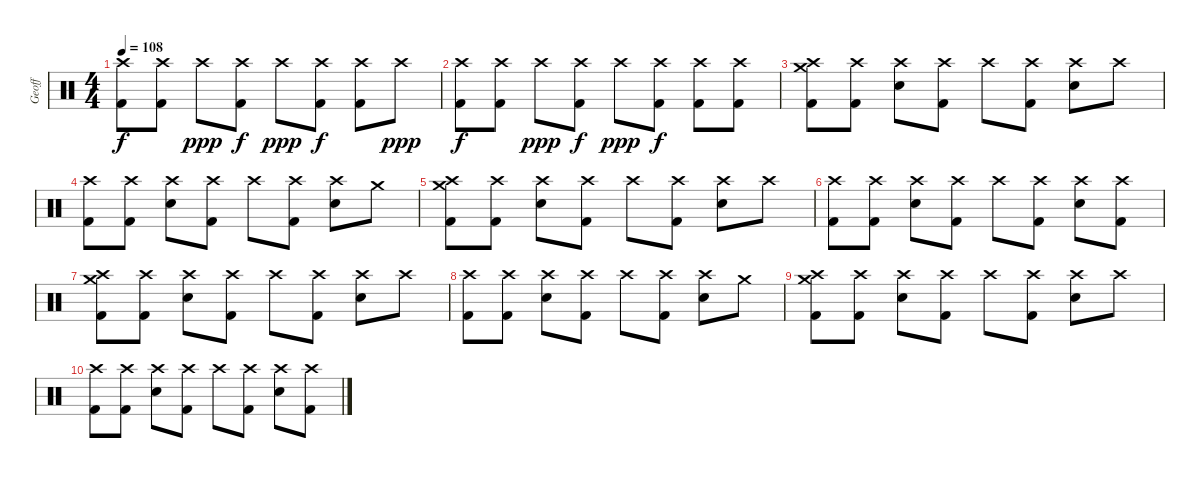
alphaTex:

\track ("Geoff" "Geoff") {instrument percussion}
\staff {score}
\articulation defaults
\ts (4 4)
\tempo 108
\clef neutral
\ks c
("Crash high (hit)" "Kick (hit) 2").8{dy f} ("Crash high (hit)" "Kick (hit) 2").8 "Crash high (hit)".8{dy ppp} ("Crash high (hit)" "Kick (hit) 2").8{dy f} "Crash high (hit)".8{dy ppp} ("Crash high (hit)" "Kick (hit) 2").8{dy f} ("Crash high (hit)" "Kick (hit) 2").8 "Crash high (hit)".8{dy ppp} |
("Crash high (hit)" "Kick (hit) 2").8{dy f} ("Crash high (hit)" "Kick (hit) 2").8 "Crash high (hit)".8{dy ppp} ("Crash high (hit)" "Kick (hit) 2").8{dy f} "Crash high (hit)".8{dy ppp} ("Crash high (hit)" "Kick (hit) 2").8{dy f} ("Crash high (hit)" "Kick (hit) 2").8 ("Crash high (hit)" "Kick (hit) 2").8 |
("Crash high (hit)" "Crash medium (hit)" "Kick (hit) 2").8 ("Crash high (hit)" "Kick (hit) 2").8 ("Crash high (hit)" "Electric Snare (hit)").8 ("Crash high (hit)" "Kick (hit) 2").8 "Crash high (hit)".8 ("Crash high (hit)" "Kick (hit) 2").8 ("Crash high (hit)" "Electric Snare (hit)").8 "Crash high (hit)".8 |
("Crash high (hit)" "Kick (hit) 2").8 ("Crash high (hit)" "Kick (hit) 2").8 ("Crash high (hit)" "Electric Snare (hit)").8 ("Crash high (hit)" "Kick (hit) 2").8 "Crash high (hit)".8 ("Crash high (hit)" "Kick (hit) 2").8 ("Crash high (hit)" "Electric Snare (hit)").8 "Crash medium (hit)".8 |
("Crash high (hit)" "Crash medium (hit)" "Kick (hit) 2").8 ("Crash high (hit)" "Kick (hit) 2").8 ("Crash high (hit)" "Electric Snare (hit)").8 ("Crash high (hit)" "Kick (hit) 2").8 "Crash high (hit)".8 ("Crash high (hit)" "Kick (hit) 2").8 ("Crash high (hit)" "Electric Snare (hit)").8 "Crash high (hit)".8 |
("Crash high (hit)" "Kick (hit) 2").8 ("Crash high (hit)" "Kick (hit) 2").8 ("Crash high (hit)" "Electric Snare (hit)").8 ("Crash high (hit)" "Kick (hit) 2").8 "Crash high (hit)".8 ("Crash high (hit)" "Kick (hit) 2").8 ("Crash high (hit)" "Electric Snare (hit)").8 ("Crash high (hit)" "Kick (hit) 2").8 |
("Crash high (hit)" "Crash medium (hit)" "Kick (hit) 2").8{volume 0} ("Crash high (hit)" "Kick (hit) 2").8 ("Crash high (hit)" "Electric Snare (hit)").8 ("Crash high (hit)" "Kick (hit) 2").8 "Crash high (hit)".8 ("Crash high (hit)" "Kick (hit) 2").8 ("Crash high (hit)" "Electric Snare (hit)").8 "Crash high (hit)".8 |
("Crash high (hit)" "Kick (hit) 2").8 ("Crash high (hit)" "Kick (hit) 2").8 ("Crash high (hit)" "Electric Snare (hit)").8 ("Crash high (hit)" "Kick (hit) 2").8 "Crash high (hit)".8 ("Crash high (hit)" "Kick (hit) 2").8 ("Crash high (hit)" "Electric Snare (hit)").8 "Crash medium (hit)".8 |
("Crash high (hit)" "Crash medium (hit)" "Kick (hit) 2").8 ("Crash high (hit)" "Kick (hit) 2").8 ("Crash high (hit)" "Electric Snare (hit)").8 ("Crash high (hit)" "Kick (hit) 2").8 "Crash high (hit)".8 ("Crash high (hit)" "Kick (hit) 2").8 ("Crash high (hit)" "Electric Snare (hit)").8 "Crash high (hit)".8 |
("Crash high (hit)" "Kick (hit) 2").8 ("Crash high (hit)" "Kick (hit) 2").8 ("Crash high (hit)" "Electric Snare (hit)").8 ("Crash high (hit)" "Kick (hit) 2").8 "Crash high (hit)".8 ("Crash high (hit)" "Kick (hit) 2").8 ("Crash high (hit)" "Electric Snare (hit)").8 ("Crash high (hit)" "Kick (hit) 2").8
